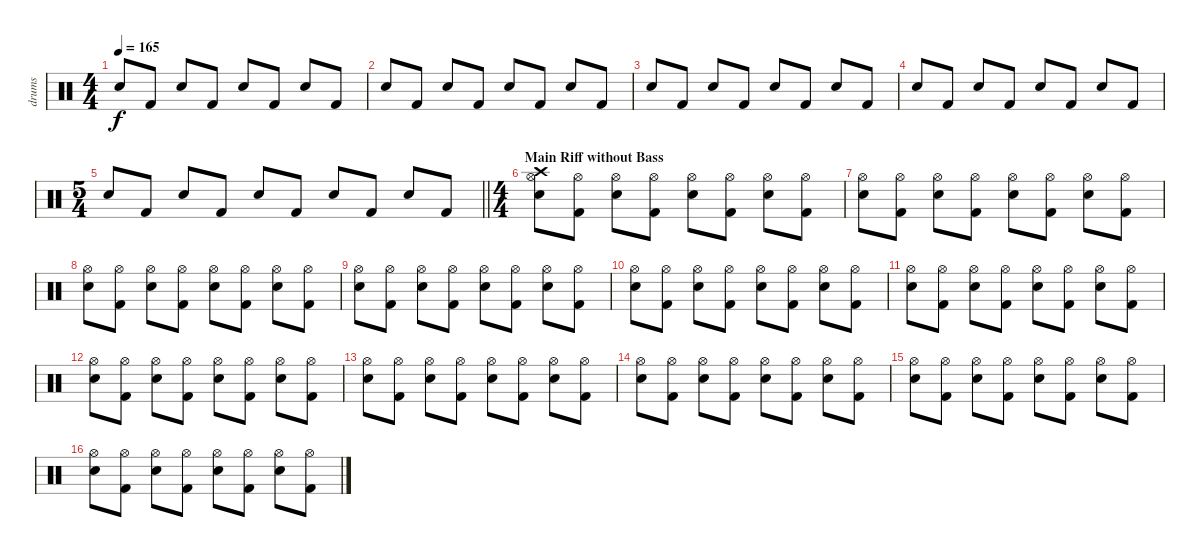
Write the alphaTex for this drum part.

\track ("drums" "drums") {instrument percussion}
\staff {score}
\articulation defaults
\ts (4 4)
\tempo 165
\clef neutral
\ks c "Electric Snare (hit)".8{dy f} "Kick (hit) 2".8 "Electric Snare (hit)".8 "Kick (hit) 2".8 "Electric Snare (hit)".8 "Kick (hit) 2".8 "Electric Snare (hit)".8 "Kick (hit) 2".8
|
"Electric Snare (hit)".8 "Kick (hit) 2".8 "Electric Snare (hit)".8 "Kick (hit) 2".8 "Electric Snare (hit)".8 "Kick (hit) 2".8 "Electric Snare (hit)".8 "Kick (hit) 2".8 |
"Electric Snare (hit)".8 "Kick (hit) 2".8 "Electric Snare (hit)".8 "Kick (hit) 2".8 "Electric Snare (hit)".8 "Kick (hit) 2".8 "Electric Snare (hit)".8 "Kick (hit) 2".8 |
"Electric Snare (hit)".8 "Kick (hit) 2".8 "Electric Snare (hit)".8 "Kick (hit) 2".8 "Electric Snare (hit)".8 "Kick (hit) 2".8 "Electric Snare (hit)".8 "Kick (hit) 2".8 |
\ts (5 4)
\barLineRight lightlight "Electric Snare (hit)".8 "Kick (hit) 2".8 "Electric Snare (hit)".8 "Kick (hit) 2".8 "Electric Snare (hit)".8 "Kick (hit) 2".8 "Electric Snare (hit)".8 "Kick (hit) 2".8 "Electric Snare (hit)".8 "Kick (hit) 2".8
|
\ts (4 4)
\section ("" "Main Riff without Bass")
("Crash high (hit)" "Hi-Hat (open)" "Electric Snare (hit)").8 ("Hi-Hat (open)" "Kick (hit) 2").8 ("Hi-Hat (open)" "Electric Snare (hit)").8 ("Hi-Hat (open)" "Kick (hit) 2").8 ("Hi-Hat (open)" "Electric Snare (hit)").8 ("Hi-Hat (open)" "Kick (hit) 2").8 ("Hi-Hat (open)" "Electric Snare (hit)").8 ("Hi-Hat (open)" "Kick (hit) 2").8 |
("Hi-Hat (open)" "Electric Snare (hit)").8 ("Hi-Hat (open)" "Kick (hit) 2").8 ("Hi-Hat (open)" "Electric Snare (hit)").8 ("Hi-Hat (open)" "Kick (hit) 2").8 ("Hi-Hat (open)" "Electric Snare (hit)").8 ("Hi-Hat (open)" "Kick (hit) 2").8 ("Hi-Hat (open)" "Electric Snare (hit)").8 ("Hi-Hat (open)" "Kick (hit) 2").8 |
("Hi-Hat (open)" "Electric Snare (hit)").8 ("Hi-Hat (open)" "Kick (hit) 2").8 ("Hi-Hat (open)" "Electric Snare (hit)").8 ("Hi-Hat (open)" "Kick (hit) 2").8 ("Hi-Hat (open)" "Electric Snare (hit)").8 ("Hi-Hat (open)" "Kick (hit) 2").8 ("Hi-Hat (open)" "Electric Snare (hit)").8 ("Hi-Hat (open)" "Kick (hit) 2").8 |
("Hi-Hat (open)" "Electric Snare (hit)").8 ("Hi-Hat (open)" "Kick (hit) 2").8 ("Hi-Hat (open)" "Electric Snare (hit)").8 ("Hi-Hat (open)" "Kick (hit) 2").8 ("Hi-Hat (open)" "Electric Snare (hit)").8 ("Hi-Hat (open)" "Kick (hit) 2").8 ("Hi-Hat (open)" "Electric Snare (hit)").8 ("Hi-Hat (open)" "Kick (hit) 2").8 |
("Hi-Hat (open)" "Electric Snare (hit)").8 ("Hi-Hat (open)" "Kick (hit) 2").8 ("Hi-Hat (open)" "Electric Snare (hit)").8 ("Hi-Hat (open)" "Kick (hit) 2").8 ("Hi-Hat (open)" "Electric Snare (hit)").8 ("Hi-Hat (open)" "Kick (hit) 2").8 ("Hi-Hat (open)" "Electric Snare (hit)").8 ("Hi-Hat (open)" "Kick (hit) 2").8 |
("Hi-Hat (open)" "Electric Snare (hit)").8 ("Hi-Hat (open)" "Kick (hit) 2").8 ("Hi-Hat (open)" "Electric Snare (hit)").8 ("Hi-Hat (open)" "Kick (hit) 2").8 ("Hi-Hat (open)" "Electric Snare (hit)").8 ("Hi-Hat (open)" "Kick (hit) 2").8 ("Hi-Hat (open)" "Electric Snare (hit)").8 ("Hi-Hat (open)" "Kick (hit) 2").8 |
("Hi-Hat (open)" "Electric Snare (hit)").8 ("Hi-Hat (open)" "Kick (hit) 2").8 ("Hi-Hat (open)" "Electric Snare (hit)").8 ("Hi-Hat (open)" "Kick (hit) 2").8 ("Hi-Hat (open)" "Electric Snare (hit)").8 ("Hi-Hat (open)" "Kick (hit) 2").8 ("Hi-Hat (open)" "Electric Snare (hit)").8 ("Hi-Hat (open)" "Kick (hit) 2").8 |
("Hi-Hat (open)" "Electric Snare (hit)").8 ("Hi-Hat (open)" "Kick (hit) 2").8 ("Hi-Hat (open)" "Electric Snare (hit)").8 ("Hi-Hat (open)" "Kick (hit) 2").8 ("Hi-Hat (open)" "Electric Snare (hit)").8 ("Hi-Hat (open)" "Kick (hit) 2").8 ("Hi-Hat (open)" "Electric Snare (hit)").8 ("Hi-Hat (open)" "Kick (hit) 2").8 |
("Hi-Hat (open)" "Electric Snare (hit)").8 ("Hi-Hat (open)" "Kick (hit) 2").8 ("Hi-Hat (open)" "Electric Snare (hit)").8 ("Hi-Hat (open)" "Kick (hit) 2").8 ("Hi-Hat (open)" "Electric Snare (hit)").8 ("Hi-Hat (open)" "Kick (hit) 2").8 ("Hi-Hat (open)" "Electric Snare (hit)").8 ("Hi-Hat (open)" "Kick (hit) 2").8 |
("Hi-Hat (open)" "Electric Snare (hit)").8 ("Hi-Hat (open)" "Kick (hit) 2").8 ("Hi-Hat (open)" "Electric Snare (hit)").8 ("Hi-Hat (open)" "Kick (hit) 2").8 ("Hi-Hat (open)" "Electric Snare (hit)").8 ("Hi-Hat (open)" "Kick (hit) 2").8 ("Hi-Hat (open)" "Electric Snare (hit)").8 ("Hi-Hat (open)" "Kick (hit) 2").8 |
("Hi-Hat (open)" "Electric Snare (hit)").8 ("Hi-Hat (open)" "Kick (hit) 2").8 ("Hi-Hat (open)" "Electric Snare (hit)").8 ("Hi-Hat (open)" "Kick (hit) 2").8 ("Hi-Hat (open)" "Electric Snare (hit)").8 ("Hi-Hat (open)" "Kick (hit) 2").8 ("Hi-Hat (open)" "Electric Snare (hit)").8 ("Hi-Hat (open)" "Kick (hit) 2").8
